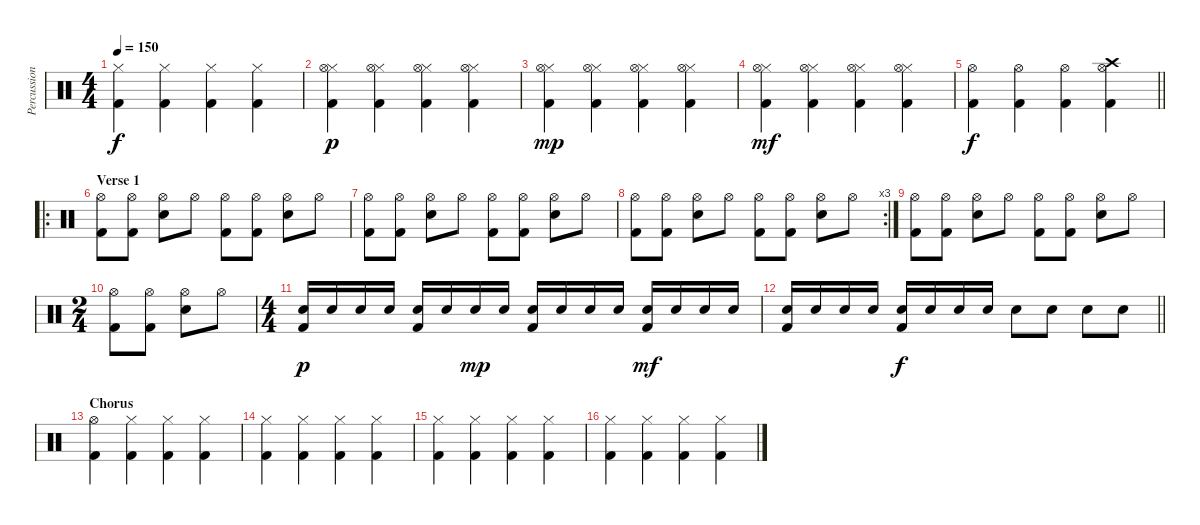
\track ("Percussion" "Percussion") {instrument percussion}
\staff
\articulation defaults
\ts (4 4)
\tempo 150
\clef neutral
\ks c
("Hi-Hat (closed)" "Kick (hit) 2").4{dy f} ("Hi-Hat (closed)" "Kick (hit) 2").4 ("Hi-Hat (closed)" "Kick (hit) 2").4 ("Hi-Hat (closed)" "Kick (hit) 2").4 |
("Hi-Hat (closed)" "Hi-Hat (open)" "Kick (hit) 2").4{dy p} ("Hi-Hat (closed)" "Hi-Hat (open)" "Kick (hit) 2").4 ("Hi-Hat (closed)" "Hi-Hat (open)" "Kick (hit) 2").4 ("Hi-Hat (closed)" "Hi-Hat (open)" "Kick (hit) 2").4 |
("Hi-Hat (closed)" "Hi-Hat (open)" "Kick (hit) 2").4{dy mp} ("Hi-Hat (closed)" "Hi-Hat (open)" "Kick (hit) 2").4 ("Hi-Hat (closed)" "Hi-Hat (open)" "Kick (hit) 2").4 ("Hi-Hat (closed)" "Hi-Hat (open)" "Kick (hit) 2").4 |
("Hi-Hat (closed)" "Hi-Hat (open)" "Kick (hit) 2").4{dy mf} ("Hi-Hat (closed)" "Hi-Hat (open)" "Kick (hit) 2").4 ("Hi-Hat (closed)" "Hi-Hat (open)" "Kick (hit) 2").4 ("Hi-Hat (closed)" "Hi-Hat (open)" "Kick (hit) 2").4 |
\barLineRight lightlight
("Hi-Hat (open)" "Kick (hit) 2").4{dy f} ("Hi-Hat (open)" "Kick (hit) 2").4 ("Hi-Hat (open)" "Kick (hit) 2").4 ("Crash high (hit)" "Hi-Hat (open)" "Kick (hit) 2").4 |
\ro
\section ("" "Verse 1")
("Hi-Hat (open)" "Kick (hit) 2").8 ("Hi-Hat (open)" "Kick (hit) 2").8 ("Hi-Hat (open)" "Snare (hit) 2").8 "Hi-Hat (open)".8 ("Hi-Hat (open)" "Kick (hit) 2").8 ("Hi-Hat (open)" "Kick (hit) 2").8 ("Hi-Hat (open)" "Snare (hit) 2").8 "Hi-Hat (open)".8 |
("Hi-Hat (open)" "Kick (hit) 2").8 ("Hi-Hat (open)" "Kick (hit) 2").8 ("Hi-Hat (open)" "Snare (hit) 2").8 "Hi-Hat (open)".8 ("Hi-Hat (open)" "Kick (hit) 2").8 ("Hi-Hat (open)" "Kick (hit) 2").8 ("Hi-Hat (open)" "Snare (hit) 2").8 "Hi-Hat (open)".8 |
\rc 3
("Hi-Hat (open)" "Kick (hit) 2").8 ("Hi-Hat (open)" "Kick (hit) 2").8 ("Hi-Hat (open)" "Snare (hit) 2").8 "Hi-Hat (open)".8 ("Hi-Hat (open)" "Kick (hit) 2").8 ("Hi-Hat (open)" "Kick (hit) 2").8 ("Hi-Hat (open)" "Snare (hit) 2").8 "Hi-Hat (open)".8 |
("Hi-Hat (open)" "Kick (hit) 2").8 ("Hi-Hat (open)" "Kick (hit) 2").8 ("Hi-Hat (open)" "Snare (hit) 2").8 "Hi-Hat (open)".8 ("Hi-Hat (open)" "Kick (hit) 2").8 ("Hi-Hat (open)" "Kick (hit) 2").8 ("Hi-Hat (open)" "Snare (hit) 2").8 "Hi-Hat (open)".8 |
\ts (2 4)
("Hi-Hat (open)" "Kick (hit) 2").8 ("Hi-Hat (open)" "Kick (hit) 2").8 ("Hi-Hat (open)" "Snare (hit) 2").8 "Hi-Hat (open)".8 |
\ts (4 4)
("Snare (hit) 2" "Kick (hit) 2").16{dy p} "Snare (hit) 2".16 "Snare (hit) 2".16 "Snare (hit) 2".16 ("Snare (hit) 2" "Kick (hit) 2").16 "Snare (hit) 2".16 "Snare (hit) 2".16{dy mp} "Snare (hit) 2".16 ("Snare (hit) 2" "Kick (hit) 2").16 "Snare (hit) 2".16 "Snare (hit) 2".16 "Snare (hit) 2".16 ("Snare (hit) 2" "Kick (hit) 2").16{dy mf} "Snare (hit) 2".16 "Snare (hit) 2".16 "Snare (hit) 2".16 |
\barLineRight lightlight
("Snare (hit) 2" "Kick (hit) 2").16 "Snare (hit) 2".16 "Snare (hit) 2".16 "Snare (hit) 2".16 ("Snare (hit) 2" "Kick (hit) 2").16{dy f} "Snare (hit) 2".16 "Snare (hit) 2".16 "Snare (hit) 2".16 "Snare (hit) 2".8 "Snare (hit) 2".8 "Snare (hit) 2".8 "Snare (hit) 2".8 |
\section ("" "Chorus")
("Hi-Hat (open)" "Kick (hit) 2").4 ("Hi-Hat (closed)" "Kick (hit) 2").4 ("Hi-Hat (closed)" "Kick (hit) 2").4 ("Hi-Hat (closed)" "Kick (hit) 2").4 |
("Hi-Hat (closed)" "Kick (hit) 2").4 ("Hi-Hat (closed)" "Kick (hit) 2").4 ("Hi-Hat (closed)" "Kick (hit) 2").4 ("Hi-Hat (closed)" "Kick (hit) 2").4 |
("Hi-Hat (closed)" "Kick (hit) 2").4 ("Hi-Hat (closed)" "Kick (hit) 2").4 ("Hi-Hat (closed)" "Kick (hit) 2").4 ("Hi-Hat (closed)" "Kick (hit) 2").4 |
("Hi-Hat (closed)" "Kick (hit) 2").4 ("Hi-Hat (closed)" "Kick (hit) 2").4 ("Hi-Hat (closed)" "Kick (hit) 2").4 ("Hi-Hat (closed)" "Kick (hit) 2").4
